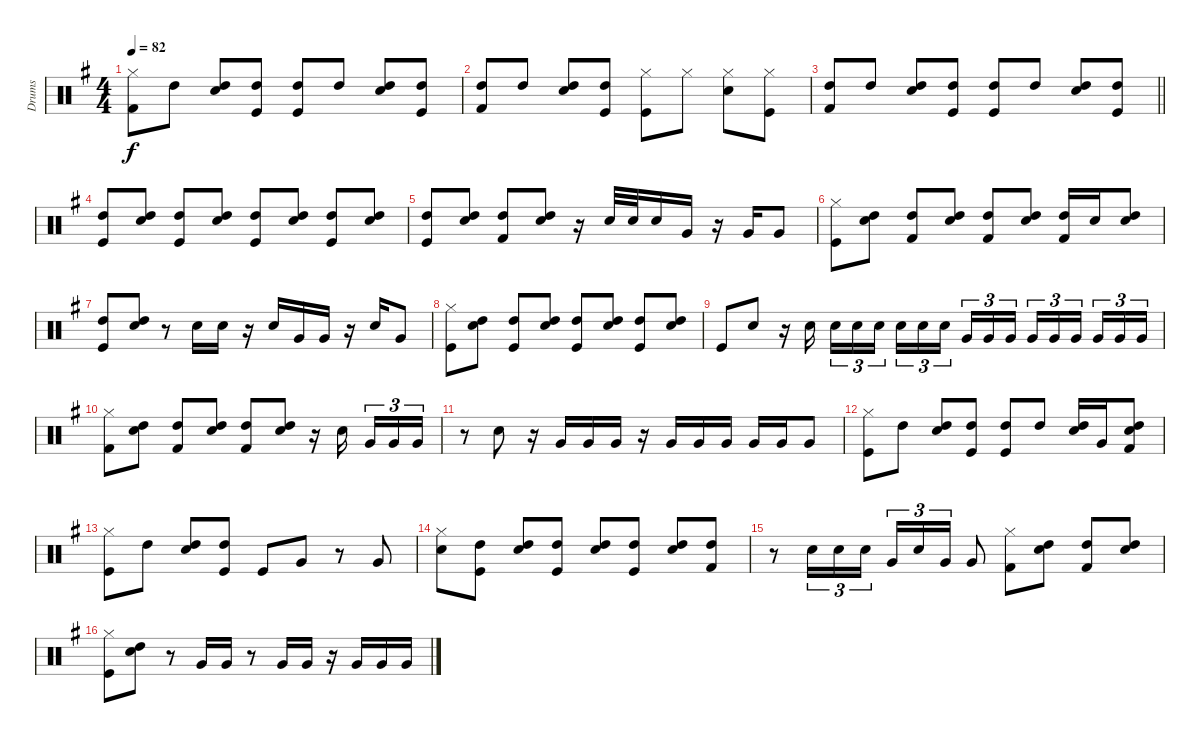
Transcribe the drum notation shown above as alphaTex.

\track ("Drums" "Drums") {instrument percussion}
\staff {score}
\articulation defaults
\ts (4 4)
\tempo 82
\clef neutral
\ks g
("Hi-Hat (closed)" "Kick (hit) 2").8{dy f} "High Tom (hit)".8 ("High Tom (hit)" "Snare (hit) 2").8 ("High Tom (hit)" "Kick (hit)").8 ("High Tom (hit)" "Kick (hit)").8 "High Tom (hit)".8 ("High Tom (hit)" "Snare (hit) 2").8 ("High Tom (hit)" "Kick (hit)").8 |
("High Tom (hit)" "Kick (hit) 2").8 "High Tom (hit)".8 ("High Tom (hit)" "Snare (hit) 2").8 ("High Tom (hit)" "Kick (hit)").8 ("Hi-Hat (closed)" "Kick (hit)").8 "Hi-Hat (closed)".8 ("Hi-Hat (closed)" "Snare (hit) 2").8 ("Hi-Hat (closed)" "Kick (hit)").8 |
\barLineRight lightlight
("High Tom (hit)" "Kick (hit) 2").8 "High Tom (hit)".8 ("High Tom (hit)" "Snare (hit) 2").8 ("High Tom (hit)" "Kick (hit)").8 ("High Tom (hit)" "Kick (hit)").8 "High Tom (hit)".8 ("High Tom (hit)" "Snare (hit) 2").8 ("High Tom (hit)" "Kick (hit)").8 |
("High Tom (hit)" "Kick (hit)").8 ("High Tom (hit)" "Snare (hit) 2").8 ("High Tom (hit)" "Kick (hit)").8 ("High Tom (hit)" "Snare (hit) 2").8 ("High Tom (hit)" "Kick (hit)").8 ("High Tom (hit)" "Snare (hit) 2").8 ("High Tom (hit)" "Kick (hit)").8 ("High Tom (hit)" "Snare (hit) 2").8 |
("High Tom (hit)" "Kick (hit)").8 ("High Tom (hit)" "Snare (hit) 2").8 ("High Tom (hit)" "Kick (hit) 2").8 ("High Tom (hit)" "Snare (hit) 2").8 r.16 "Snare (hit) 2".32 "Snare (hit) 2".32 "Snare (hit) 2".16 "Very Low Tom (hit)".16 r.16 "Very Low Tom (hit)".16 "Very Low Tom (hit)".8 |
("Hi-Hat (closed)" "Kick (hit)").8 ("High Tom (hit)" "Snare (hit) 2").8 ("High Tom (hit)" "Kick (hit) 2").8 ("High Tom (hit)" "Snare (hit) 2").8 ("High Tom (hit)" "Kick (hit) 2").8 ("High Tom (hit)" "Snare (hit) 2").8 ("High Tom (hit)" "Kick (hit) 2").16 "Snare (hit) 2".16 ("High Tom (hit)" "Snare (hit) 2").8 |
("High Tom (hit)" "Kick (hit)").8 ("High Tom (hit)" "Snare (hit) 2").8 r.8 "Snare (hit) 2".16 "Snare (hit) 2".16 r.16 "Snare (hit) 2".16 "Very Low Tom (hit)".16 "Very Low Tom (hit)".16 r.16 "Snare (hit) 2".16 "Very Low Tom (hit)".8 |
("Hi-Hat (closed)" "Kick (hit)").8 ("High Tom (hit)" "Snare (hit) 2").8 ("High Tom (hit)" "Kick (hit)").8 ("High Tom (hit)" "Snare (hit) 2").8 ("High Tom (hit)" "Kick (hit)").8 ("High Tom (hit)" "Snare (hit) 2").8 ("High Tom (hit)" "Kick (hit)").8 ("High Tom (hit)" "Snare (hit) 2").8 |
"Kick (hit)".8 "Snare (hit) 2".8 r.16 "Snare (hit) 2".16{beam splitsecondary} "Snare (hit) 2".16{tu (3 2)} "Snare (hit) 2".16{tu (3 2)} "Snare (hit) 2".16{tu (3 2)} "Snare (hit) 2".16{tu (3 2)} "Snare (hit) 2".16{tu (3 2)} "Snare (hit) 2".16{tu (3 2) beam splitsecondary} "Very Low Tom (hit)".16{tu (3 2)} "Very Low Tom (hit)".16{tu (3 2)} "Very Low Tom (hit)".16{tu (3 2)} "Very Low Tom (hit)".16{tu (3 2)} "Very Low Tom (hit)".16{tu (3 2)} "Very Low Tom (hit)".16{tu (3 2) beam splitsecondary} "Very Low Tom (hit)".16{tu (3 2)} "Very Low Tom (hit)".16{tu (3 2)} "Very Low Tom (hit)".16{tu (3 2)} |
("Hi-Hat (closed)" "Kick (hit) 2").8 ("High Tom (hit)" "Snare (hit) 2").8 ("High Tom (hit)" "Kick (hit) 2").8 ("High Tom (hit)" "Snare (hit) 2").8 ("High Tom (hit)" "Kick (hit) 2").8 ("High Tom (hit)" "Snare (hit) 2").8 r.16 "Snare (hit) 2".16{beam splitsecondary} "Very Low Tom (hit)".16{tu (3 2)} "Very Low Tom (hit)".16{tu (3 2)} "Very Low Tom (hit)".16{tu (3 2)} |
r.8 "Snare (hit) 2".8 r.16 "Very Low Tom (hit)".16 "Very Low Tom (hit)".16 "Very Low Tom (hit)".16 r.16 "Very Low Tom (hit)".16 "Very Low Tom (hit)".16 "Very Low Tom (hit)".16 "Very Low Tom (hit)".16 "Very Low Tom (hit)".16 "Very Low Tom (hit)".8 |
("Hi-Hat (closed)" "Kick (hit)").8 "High Tom (hit)".8 ("High Tom (hit)" "Snare (hit) 2").8 ("High Tom (hit)" "Kick (hit)").8 ("High Tom (hit)" "Kick (hit)").8 "High Tom (hit)".8 ("High Tom (hit)" "Snare (hit) 2").16 "Very Low Tom (hit)".16 ("High Tom (hit)" "Snare (hit) 2" "Kick (hit) 2").8 |
("Hi-Hat (closed)" "Kick (hit)").8 "High Tom (hit)".8 ("High Tom (hit)" "Snare (hit) 2").8 ("High Tom (hit)" "Kick (hit)").8 "Kick (hit)".8 "Very Low Tom (hit)".8 r.8 "Very Low Tom (hit)".8 |
("Snare (hit) 2" "Hi-Hat (closed)").8 ("Kick (hit)" "High Tom (hit)").8 ("Snare (hit) 2" "High Tom (hit)").8 ("Kick (hit)" "High Tom (hit)").8 ("Snare (hit) 2" "High Tom (hit)").8 ("Kick (hit)" "High Tom (hit)").8 ("Snare (hit) 2" "High Tom (hit)").8 ("Kick (hit) 2" "High Tom (hit)").8 |
r.8 "Snare (hit) 2".16{tu (3 2)} "Snare (hit) 2".16{tu (3 2)} "Snare (hit) 2".16{tu (3 2)} "Very Low Tom (hit)".16{tu (3 2)} "Snare (hit) 2".16{tu (3 2)} "Very Low Tom (hit)".16{tu (3 2)} "Very Low Tom (hit)".8 ("Hi-Hat (closed)" "Kick (hit) 2").8 ("High Tom (hit)" "Snare (hit) 2").8 ("High Tom (hit)" "Kick (hit) 2").8 ("High Tom (hit)" "Snare (hit) 2").8 |
("Hi-Hat (closed)" "Kick (hit)").8 ("High Tom (hit)" "Snare (hit) 2").8 r.8 "Very Low Tom (hit)".16 "Very Low Tom (hit)".16 r.8 "Very Low Tom (hit)".16 "Very Low Tom (hit)".16 r.16 "Very Low Tom (hit)".16 "Very Low Tom (hit)".16 "Very Low Tom (hit)".16
